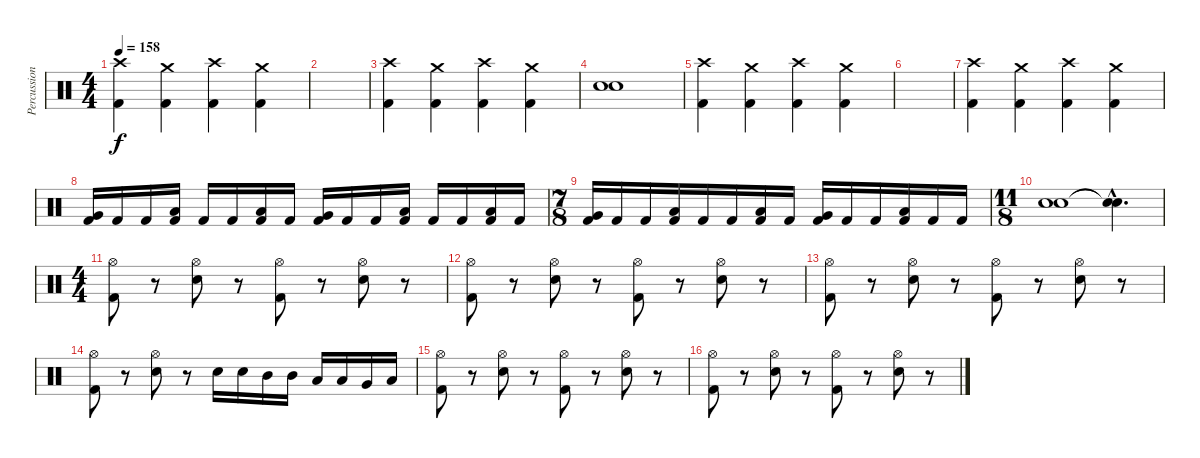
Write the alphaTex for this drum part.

\track ("Percussion" "Percussion") {instrument percussion}
\staff {score}
\articulation defaults
\ts (4 4)
\tempo 158
\clef neutral
\ks c
("Crash high (hit)" "Kick (hit) 2").4{dy f} ("Crash medium (hit)" "Kick (hit) 2").4 ("Crash high (hit)" "Kick (hit) 2").4 ("Crash medium (hit)" "Kick (hit) 2").4 |
|
("Crash high (hit)" "Kick (hit) 2").4 ("Crash medium (hit)" "Kick (hit) 2").4 ("Crash high (hit)" "Kick (hit) 2").4 ("Crash medium (hit)" "Kick (hit) 2").4 |
("Snare (hit) 2" "Snare (hit) 2").1 |
("Crash high (hit)" "Kick (hit) 2").4 ("Crash medium (hit)" "Kick (hit) 2").4 ("Crash high (hit)" "Kick (hit) 2").4 ("Crash medium (hit)" "Kick (hit) 2").4 |
|
("Crash high (hit)" "Kick (hit) 2").4 ("Crash medium (hit)" "Kick (hit) 2").4 ("Crash high (hit)" "Kick (hit) 2").4 ("Crash medium (hit)" "Kick (hit) 2").4 |
("Very Low Tom (hit)" "Kick (hit) 2").16 "Kick (hit) 2".16 "Kick (hit) 2".16 ("Low Floor Tom (hit)" "Kick (hit) 2").16 "Kick (hit) 2".16 "Kick (hit) 2".16 ("Low Tom (hit)" "Kick (hit) 2").16 "Kick (hit) 2".16 ("Very Low Tom (hit)" "Kick (hit) 2").16 "Kick (hit) 2".16 "Kick (hit) 2".16 ("Low Floor Tom (hit)" "Kick (hit) 2").16 "Kick (hit) 2".16 "Kick (hit) 2".16 ("Low Tom (hit)" "Kick (hit) 2").16 "Kick (hit) 2".16 |
\ts (7 8)
("Very Low Tom (hit)" "Kick (hit) 2").16 "Kick (hit) 2".16 "Kick (hit) 2".16 ("Low Floor Tom (hit)" "Kick (hit) 2").16 "Kick (hit) 2".16 "Kick (hit) 2".16 ("Low Tom (hit)" "Kick (hit) 2").16 "Kick (hit) 2".16 ("Very Low Tom (hit)" "Kick (hit) 2").16 "Kick (hit) 2".16 "Kick (hit) 2".16 ("Low Floor Tom (hit)" "Kick (hit) 2").16 "Kick (hit) 2".16 "Kick (hit) 2".16 |
\ts (11 8)
("Snare (hit) 2" "Snare (hit) 2").1 ("Snare (hit)"{hac t} "Snare (hit)"{hac t}).4{d} |
\ts (4 4)
("Hi-Hat (open)" "Kick (hit) 2").8 r.8 ("Hi-Hat (open)" "Snare (hit) 2").8 r.8 ("Hi-Hat (open)" "Kick (hit) 2").8 r.8 ("Hi-Hat (open)" "Snare (hit) 2").8 r.8 |
("Hi-Hat (open)" "Kick (hit) 2").8 r.8 ("Hi-Hat (open)" "Snare (hit) 2").8 r.8 ("Hi-Hat (open)" "Kick (hit) 2").8 r.8 ("Hi-Hat (open)" "Snare (hit) 2").8 r.8 |
("Hi-Hat (open)" "Kick (hit) 2").8 r.8 ("Hi-Hat (open)" "Snare (hit) 2").8 r.8 ("Hi-Hat (open)" "Kick (hit) 2").8 r.8 ("Hi-Hat (open)" "Snare (hit) 2").8 r.8 |
("Hi-Hat (open)" "Kick (hit) 2").8 r.8 ("Hi-Hat (open)" "Snare (hit) 2").8 r.8 "Snare (hit) 2".16 "Snare (hit) 2".16 "Mid Tom (hit)".16 "Mid Tom (hit)".16 "Low Tom (hit)".16 "Low Tom (hit)".16 "Very Low Tom (hit)".16 "Low Floor Tom (hit)".16 |
("Hi-Hat (open)" "Kick (hit) 2").8 r.8 ("Hi-Hat (open)" "Snare (hit) 2").8 r.8 ("Hi-Hat (open)" "Kick (hit) 2").8 r.8 ("Hi-Hat (open)" "Snare (hit) 2").8 r.8 |
("Hi-Hat (open)" "Kick (hit) 2").8 r.8 ("Hi-Hat (open)" "Snare (hit) 2").8 r.8 ("Hi-Hat (open)" "Kick (hit) 2").8 r.8 ("Hi-Hat (open)" "Snare (hit) 2").8 r.8
